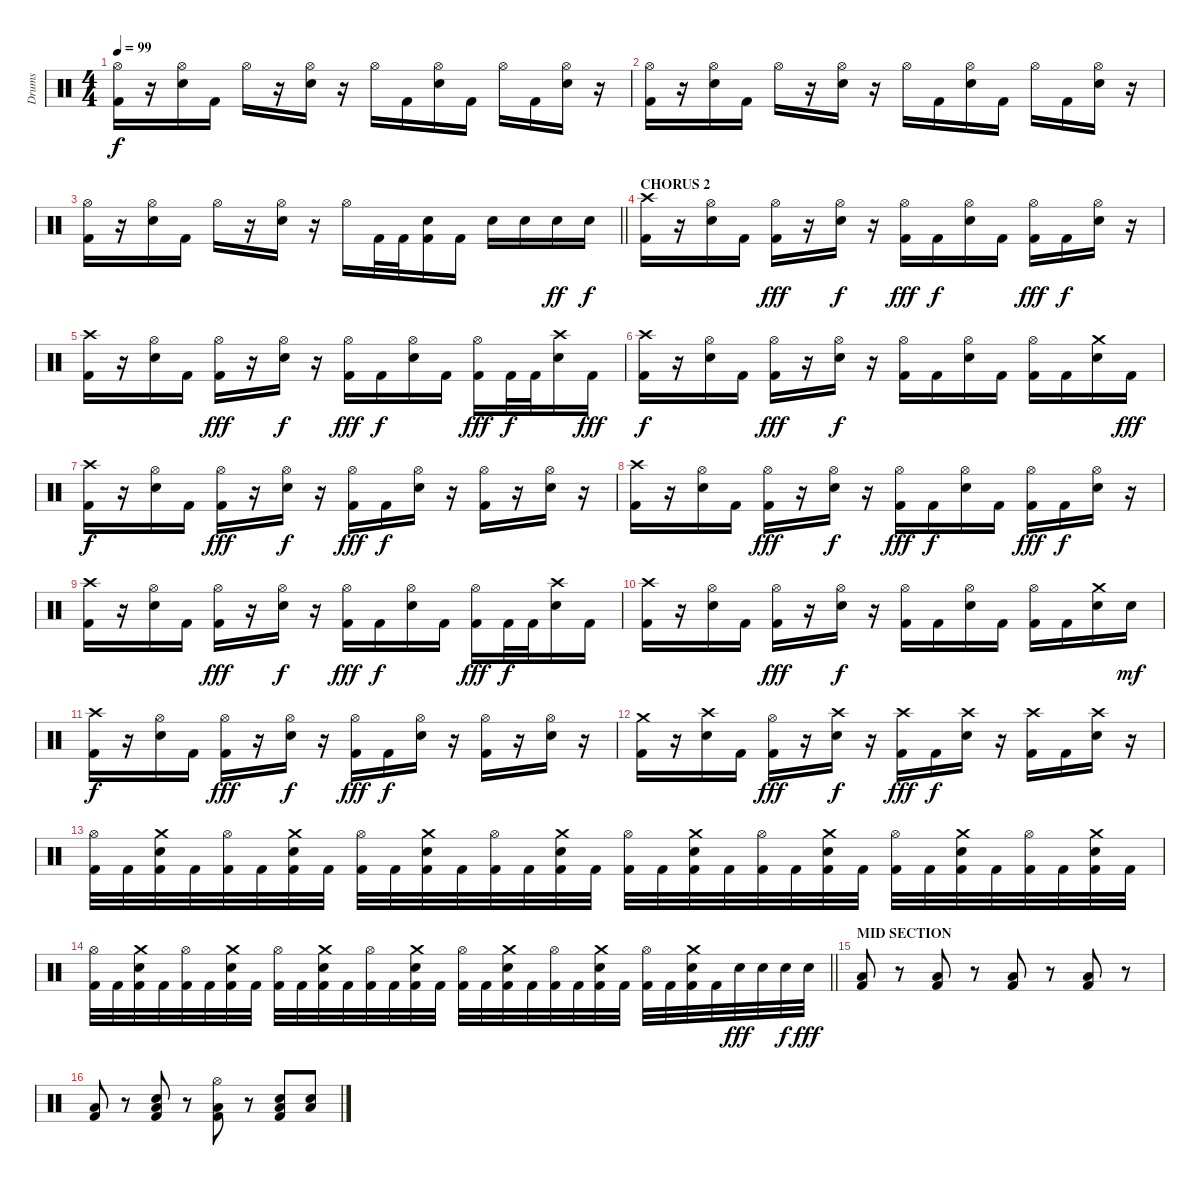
\track ("Drums" "Drums") {instrument percussion}
\staff {score}
\articulation defaults
\ts (4 4)
\tempo 99
\clef neutral
\ks c
("Hi-Hat (open)" "Kick (hit) 2").16{dy f} r.16 ("Hi-Hat (open)" "Electric Snare (hit)").16 "Kick (hit) 2".16 "Hi-Hat (open)".16 r.16 ("Hi-Hat (open)" "Electric Snare (hit)").16 r.16 "Hi-Hat (open)".16 "Kick (hit) 2".16 ("Hi-Hat (open)" "Electric Snare (hit)").16 "Kick (hit) 2".16 "Hi-Hat (open)".16 "Kick (hit) 2".16 ("Hi-Hat (open)" "Electric Snare (hit)").16 r.16 |
("Hi-Hat (open)" "Kick (hit) 2").16 r.16 ("Hi-Hat (open)" "Electric Snare (hit)").16 "Kick (hit) 2".16 "Hi-Hat (open)".16 r.16 ("Hi-Hat (open)" "Electric Snare (hit)").16 r.16 "Hi-Hat (open)".16 "Kick (hit) 2".16 ("Hi-Hat (open)" "Electric Snare (hit)").16 "Kick (hit) 2".16 "Hi-Hat (open)".16 "Kick (hit) 2".16 ("Hi-Hat (open)" "Electric Snare (hit)").16 r.16 |
\barLineRight lightlight
("Hi-Hat (open)" "Kick (hit) 2").16 r.16 ("Hi-Hat (open)" "Electric Snare (hit)").16 "Kick (hit) 2".16 "Hi-Hat (open)".16 r.16 ("Hi-Hat (open)" "Electric Snare (hit)").16 r.16 "Hi-Hat (open)".16 "Kick (hit) 2".32 "Kick (hit) 2".32 ("Electric Snare (hit)" "Kick (hit) 2").16 "Kick (hit) 2".16 "Electric Snare (hit)".16 "Electric Snare (hit)".16 "Electric Snare (hit)".16{dy ff} "Electric Snare (hit)".16{dy f} |
\section ("" "CHORUS 2")
("Crash high (hit)" "Kick (hit) 2").16 r.16 ("Hi-Hat (open)" "Electric Snare (hit)").16 "Kick (hit) 2".16 ("Hi-Hat (open)" "Kick (hit) 2").16{dy fff} r.16 ("Hi-Hat (open)" "Electric Snare (hit)").16{dy f} r.16 ("Hi-Hat (open)" "Kick (hit) 2").16{dy fff} "Kick (hit) 2".16{dy f} ("Hi-Hat (open)" "Electric Snare (hit)").16 "Kick (hit) 2".16 ("Hi-Hat (open)" "Kick (hit) 2").16{dy fff} "Kick (hit) 2".16{dy f} ("Hi-Hat (open)" "Electric Snare (hit)").16 r.16 |
("Crash high (hit)" "Kick (hit) 2").16 r.16 ("Hi-Hat (open)" "Electric Snare (hit)").16 "Kick (hit) 2".16 ("Hi-Hat (open)" "Kick (hit) 2").16{dy fff} r.16 ("Hi-Hat (open)" "Electric Snare (hit)").16{dy f} r.16 ("Hi-Hat (open)" "Kick (hit) 2").16{dy fff} "Kick (hit) 2".16{dy f} ("Hi-Hat (open)" "Electric Snare (hit)").16 "Kick (hit) 2".16 ("Hi-Hat (open)" "Kick (hit) 2").16{dy fff} "Kick (hit) 2".32{dy f} "Kick (hit) 2".32 ("Crash high (hit)" "Electric Snare (hit)").16 "Kick (hit) 2".16{dy fff} |
("Crash high (hit)" "Kick (hit) 2").16{dy f} r.16 ("Hi-Hat (open)" "Electric Snare (hit)").16 "Kick (hit) 2".16 ("Hi-Hat (open)" "Kick (hit) 2").16{dy fff} r.16 ("Hi-Hat (open)" "Electric Snare (hit)").16{dy f} r.16 ("Hi-Hat (open)" "Kick (hit) 2").16 "Kick (hit) 2".16 ("Hi-Hat (open)" "Electric Snare (hit)").16 "Kick (hit) 2".16 ("Hi-Hat (open)" "Kick (hit) 2").16 "Kick (hit) 2".16 ("Crash medium (hit)" "Electric Snare (hit)").16 "Kick (hit) 2".16{dy fff} |
("Crash high (hit)" "Kick (hit) 2").16{dy f} r.16 ("Hi-Hat (open)" "Electric Snare (hit)").16 "Kick (hit) 2".16 ("Hi-Hat (open)" "Kick (hit) 2").16{dy fff} r.16 ("Hi-Hat (open)" "Electric Snare (hit)").16{dy f} r.16 ("Hi-Hat (open)" "Kick (hit) 2").16{dy fff} "Kick (hit) 2".16{dy f} ("Hi-Hat (open)" "Electric Snare (hit)").16 r.16 ("Hi-Hat (open)" "Kick (hit) 2").16 r.16 ("Hi-Hat (open)" "Electric Snare (hit)").16 r.16 |
("Crash high (hit)" "Kick (hit) 2").16 r.16 ("Hi-Hat (open)" "Electric Snare (hit)").16 "Kick (hit) 2".16 ("Hi-Hat (open)" "Kick (hit) 2").16{dy fff} r.16 ("Hi-Hat (open)" "Electric Snare (hit)").16{dy f} r.16 ("Hi-Hat (open)" "Kick (hit) 2").16{dy fff} "Kick (hit) 2".16{dy f} ("Hi-Hat (open)" "Electric Snare (hit)").16 "Kick (hit) 2".16 ("Hi-Hat (open)" "Kick (hit) 2").16{dy fff} "Kick (hit) 2".16{dy f} ("Hi-Hat (open)" "Electric Snare (hit)").16 r.16 |
("Crash high (hit)" "Kick (hit) 2").16 r.16 ("Hi-Hat (open)" "Electric Snare (hit)").16 "Kick (hit) 2".16 ("Hi-Hat (open)" "Kick (hit) 2").16{dy fff} r.16 ("Hi-Hat (open)" "Electric Snare (hit)").16{dy f} r.16 ("Hi-Hat (open)" "Kick (hit) 2").16{dy fff} "Kick (hit) 2".16{dy f} ("Hi-Hat (open)" "Electric Snare (hit)").16 "Kick (hit) 2".16 ("Hi-Hat (open)" "Kick (hit) 2").16{dy fff} "Kick (hit) 2".32{dy f} "Kick (hit) 2".32 ("Crash high (hit)" "Electric Snare (hit)").16 "Kick (hit) 2".16 |
("Crash high (hit)" "Kick (hit) 2").16 r.16 ("Hi-Hat (open)" "Electric Snare (hit)").16 "Kick (hit) 2".16 ("Hi-Hat (open)" "Kick (hit) 2").16{dy fff} r.16 ("Hi-Hat (open)" "Electric Snare (hit)").16{dy f} r.16 ("Hi-Hat (open)" "Kick (hit) 2").16 "Kick (hit) 2".16 ("Hi-Hat (open)" "Electric Snare (hit)").16 "Kick (hit) 2".16 ("Hi-Hat (open)" "Kick (hit) 2").16 "Kick (hit) 2".16 ("Crash medium (hit)" "Electric Snare (hit)").16 "Electric Snare (hit)".16{dy mf} |
("Crash high (hit)" "Kick (hit) 2").16{dy f} r.16 ("Hi-Hat (open)" "Electric Snare (hit)").16 "Kick (hit) 2".16 ("Hi-Hat (open)" "Kick (hit) 2").16{dy fff} r.16 ("Hi-Hat (open)" "Electric Snare (hit)").16{dy f} r.16 ("Hi-Hat (open)" "Kick (hit) 2").16{dy fff} "Kick (hit) 2".16{dy f} ("Hi-Hat (open)" "Electric Snare (hit)").16 r.16 ("Hi-Hat (open)" "Kick (hit) 2").16 r.16 ("Hi-Hat (open)" "Electric Snare (hit)").16 r.16 |
("Crash medium (hit)" "Kick (hit) 2").16 r.16 ("Crash high (hit)" "Electric Snare (hit)").16 "Kick (hit) 2".16 ("Hi-Hat (open)" "Kick (hit) 2").16{dy fff} r.16 ("Crash high (hit)" "Electric Snare (hit)").16{dy f} r.16 ("Crash high (hit)" "Kick (hit) 2").16{dy fff} "Kick (hit) 2".16{dy f} ("Crash high (hit)" "Electric Snare (hit)").16 r.16 ("Crash high (hit)" "Kick (hit) 2").16 "Kick (hit) 2".16 ("Crash high (hit)" "Electric Snare (hit)").16 r.16 |
("Hi-Hat (open)" "Kick (hit) 2").32 "Kick (hit) 2".32 ("Crash medium (hit)" "Electric Snare (hit)" "Kick (hit) 2").32 "Kick (hit) 2".32 ("Hi-Hat (open)" "Kick (hit) 2").32 "Kick (hit) 2".32 ("Crash medium (hit)" "Electric Snare (hit)" "Kick (hit) 2").32 "Kick (hit) 2".32 ("Hi-Hat (open)" "Kick (hit) 2").32 "Kick (hit) 2".32 ("Crash medium (hit)" "Electric Snare (hit)" "Kick (hit) 2").32 "Kick (hit) 2".32 ("Hi-Hat (open)" "Kick (hit) 2").32 "Kick (hit) 2".32 ("Crash medium (hit)" "Electric Snare (hit)" "Kick (hit) 2").32 "Kick (hit) 2".32 ("Hi-Hat (open)" "Kick (hit) 2").32 "Kick (hit) 2".32 ("Crash medium (hit)" "Electric Snare (hit)" "Kick (hit) 2").32 "Kick (hit) 2".32 ("Hi-Hat (open)" "Kick (hit) 2").32 "Kick (hit) 2".32 ("Crash medium (hit)" "Electric Snare (hit)" "Kick (hit) 2").32 "Kick (hit) 2".32 ("Hi-Hat (open)" "Kick (hit) 2").32 "Kick (hit) 2".32 ("Crash medium (hit)" "Electric Snare (hit)" "Kick (hit) 2").32 "Kick (hit) 2".32 ("Hi-Hat (open)" "Kick (hit) 2").32 "Kick (hit) 2".32 ("Crash medium (hit)" "Electric Snare (hit)" "Kick (hit) 2").32 "Kick (hit) 2".32 |
\barLineRight lightlight
("Hi-Hat (open)" "Kick (hit) 2").32 "Kick (hit) 2".32 ("Crash medium (hit)" "Electric Snare (hit)" "Kick (hit) 2").32 "Kick (hit) 2".32 ("Hi-Hat (open)" "Kick (hit) 2").32 "Kick (hit) 2".32 ("Crash medium (hit)" "Electric Snare (hit)" "Kick (hit) 2").32 "Kick (hit) 2".32 ("Hi-Hat (open)" "Kick (hit) 2").32 "Kick (hit) 2".32 ("Crash medium (hit)" "Electric Snare (hit)" "Kick (hit) 2").32 "Kick (hit) 2".32 ("Hi-Hat (open)" "Kick (hit) 2").32 "Kick (hit) 2".32 ("Crash medium (hit)" "Electric Snare (hit)" "Kick (hit) 2").32 "Kick (hit) 2".32 ("Hi-Hat (open)" "Kick (hit) 2").32 "Kick (hit) 2".32 ("Crash medium (hit)" "Electric Snare (hit)" "Kick (hit) 2").32 "Kick (hit) 2".32 ("Hi-Hat (open)" "Kick (hit) 2").32 "Kick (hit) 2".32 ("Crash medium (hit)" "Electric Snare (hit)" "Kick (hit) 2").32 "Kick (hit) 2".32 ("Hi-Hat (open)" "Kick (hit) 2").32 "Kick (hit) 2".32 ("Crash medium (hit)" "Electric Snare (hit)" "Kick (hit) 2").32 "Kick (hit) 2".32 "Electric Snare (hit)".32{dy fff} "Electric Snare (hit)".32 "Electric Snare (hit)".32{dy f} "Electric Snare (hit)".32{dy fff} |
\section ("" "MID SECTION")
("Low Floor Tom (hit)" "Kick (hit) 2").8 r.8 ("Low Floor Tom (hit)" "Kick (hit) 2").8 r.8 ("Low Floor Tom (hit)" "Kick (hit) 2").8 r.8 ("Low Floor Tom (hit)" "Kick (hit) 2").8 r.8 |
("Low Floor Tom (hit)" "Kick (hit) 2").8 r.8 ("Snare (hit) 2" "Low Floor Tom (hit)" "Kick (hit) 2").8 r.8 ("Hi-Hat (open)" "Low Floor Tom (hit)" "Kick (hit) 2").8 r.8 ("Snare (hit) 2" "Low Floor Tom (hit)" "Kick (hit) 2").8 ("Snare (hit) 2" "Low Floor Tom (hit)").8
